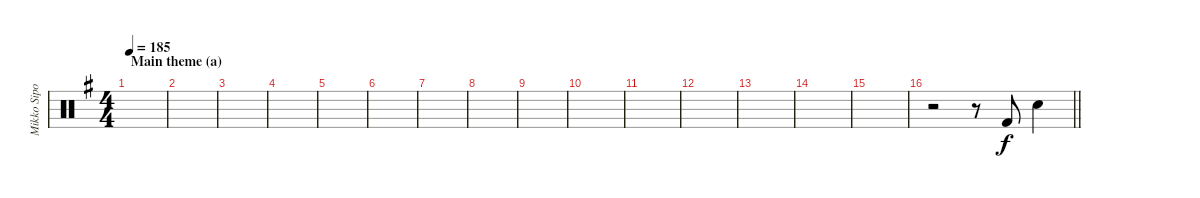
\track ("Mikko Sipola (drums)" "Mikko Sipo") {instrument percussion}
\staff {score}
\articulation defaults
\ts (4 4)
\section ("" "Main theme (a)")
\tempo 185
\clef neutral
\ks eminor
|
|
|
|
|
|
|
|
|
|
|
|
|
|
|
\barLineRight lightlight
r.2 r.8 "Kick (hit) 2".8 "Electric Snare (hit)".4
